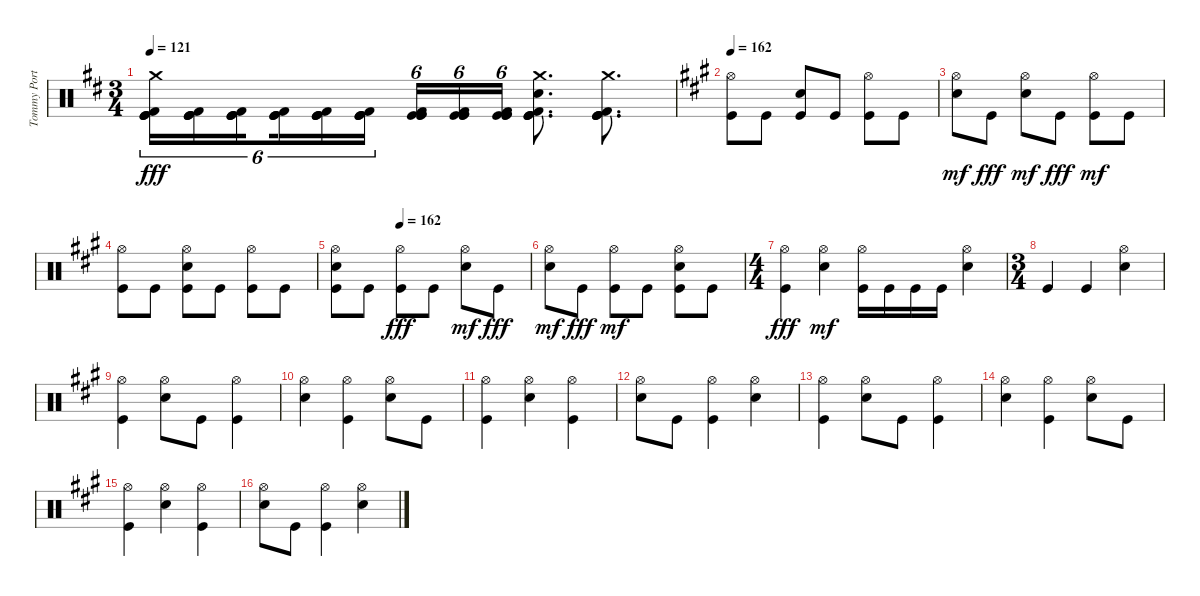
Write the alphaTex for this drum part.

\track ("Tommy Portimo (Drums)" "Tommy Port") {instrument percussion}
\staff {score}
\articulation defaults
\ts (3 4)
\tempo 121
\clef neutral
\ks d
("Crash medium (hit)" "Kick (hit)" "Kick (hit)" "Kick (hit)" "Kick (hit) 2").16{tu (6 4) dy fff} ("Kick (hit)" "Kick (hit)" "Kick (hit)" "Kick (hit) 2").16{tu (6 4)} ("Kick (hit)" "Kick (hit)" "Kick (hit)" "Kick (hit) 2").16{tu (6 4) beam splitsecondary} ("Kick (hit)" "Kick (hit)" "Kick (hit)" "Kick (hit) 2").16{tu (6 4)} ("Kick (hit)" "Kick (hit)" "Kick (hit)" "Kick (hit) 2").16{tu (6 4)} ("Kick (hit)" "Kick (hit)" "Kick (hit)" "Kick (hit) 2").16{tu (6 4)} ("Kick (hit)" "Kick (hit)" "Kick (hit)" "Kick (hit) 2").16{tu (6 4)} ("Kick (hit)" "Kick (hit)" "Kick (hit)" "Kick (hit) 2").16{tu (6 4)} ("Kick (hit)" "Kick (hit)" "Kick (hit)" "Kick (hit) 2").16{tu (6 4)} ("Electric Snare (hit)" "Crash medium (hit)" "Kick (hit)" "Kick (hit)" "Kick (hit)" "Kick (hit) 2").8{d} ("Crash medium (hit)" "Kick (hit)" "Kick (hit)" "Kick (hit)" "Kick (hit) 2").8{d} |
\tempo 162
\ks a
("Hi-Hat (open)" "Kick (hit)").8 "Kick (hit)".8 ("Electric Snare (hit)" "Kick (hit)").8 "Kick (hit)".8 ("Hi-Hat (open)" "Kick (hit)").8 "Kick (hit)".8 |
("Hi-Hat (open)" "Electric Snare (hit)").8{dy mf} "Kick (hit)".8{dy fff} ("Hi-Hat (open)" "Electric Snare (hit)").8{dy mf} "Kick (hit)".8{dy fff} ("Kick (hit)" "Hi-Hat (open)").8{dy mf} "Kick (hit)".8 |
("Hi-Hat (open)" "Kick (hit)").8 "Kick (hit)".8 ("Electric Snare (hit)" "Hi-Hat (open)" "Kick (hit)").8 "Kick (hit)".8 ("Hi-Hat (open)" "Kick (hit)").8 "Kick (hit)".8 |
\tempo (162 0.3333333333333333)
("Hi-Hat (open)" "Electric Snare (hit)" "Kick (hit)").8 "Kick (hit)".8 ("Hi-Hat (open)" "Kick (hit)").8{dy fff} "Kick (hit)".8 ("Hi-Hat (open)" "Electric Snare (hit)").8{dy mf} "Kick (hit)".8{dy fff} |
("Hi-Hat (open)" "Electric Snare (hit)").8{dy mf} "Kick (hit)".8{dy fff} ("Hi-Hat (open)" "Kick (hit)").8{dy mf} "Kick (hit)".8 ("Electric Snare (hit)" "Hi-Hat (open)" "Kick (hit)").8 "Kick (hit)".8 |
\ts (4 4)
("Hi-Hat (open)" "Kick (hit)").4{dy fff} ("Electric Snare (hit)" "Hi-Hat (open)").4{dy mf} ("Hi-Hat (open)" "Kick (hit)").16 "Kick (hit)".16 "Kick (hit)".16 "Kick (hit)".16 ("Hi-Hat (open)" "Electric Snare (hit)").4 |
\ts (3 4)
"Kick (hit)".4 "Kick (hit)".4 ("Hi-Hat (open)" "Electric Snare (hit)").4 |
("Kick (hit)" "Hi-Hat (open)").4 ("Electric Snare (hit)" "Hi-Hat (open)").8 "Kick (hit)".8 ("Kick (hit)" "Hi-Hat (open)").4 |
("Electric Snare (hit)" "Hi-Hat (open)").4 ("Kick (hit)" "Hi-Hat (open)").4 ("Electric Snare (hit)" "Hi-Hat (open)").8 "Kick (hit)".8 |
("Kick (hit)" "Hi-Hat (open)").4 ("Electric Snare (hit)" "Hi-Hat (open)").4 ("Kick (hit)" "Hi-Hat (open)").4 |
("Electric Snare (hit)" "Hi-Hat (open)").8 "Kick (hit)".8 ("Kick (hit)" "Hi-Hat (open)").4 ("Electric Snare (hit)" "Hi-Hat (open)").4 |
("Kick (hit)" "Hi-Hat (open)").4 ("Electric Snare (hit)" "Hi-Hat (open)").8 "Kick (hit)".8 ("Kick (hit)" "Hi-Hat (open)").4 |
("Electric Snare (hit)" "Hi-Hat (open)").4 ("Kick (hit)" "Hi-Hat (open)").4 ("Electric Snare (hit)" "Hi-Hat (open)").8 "Kick (hit)".8 |
("Kick (hit)" "Hi-Hat (open)").4 ("Electric Snare (hit)" "Hi-Hat (open)").4 ("Kick (hit)" "Hi-Hat (open)").4 |
("Electric Snare (hit)" "Hi-Hat (open)").8 "Kick (hit)".8 ("Kick (hit)" "Hi-Hat (open)").4 ("Electric Snare (hit)" "Hi-Hat (open)").4
